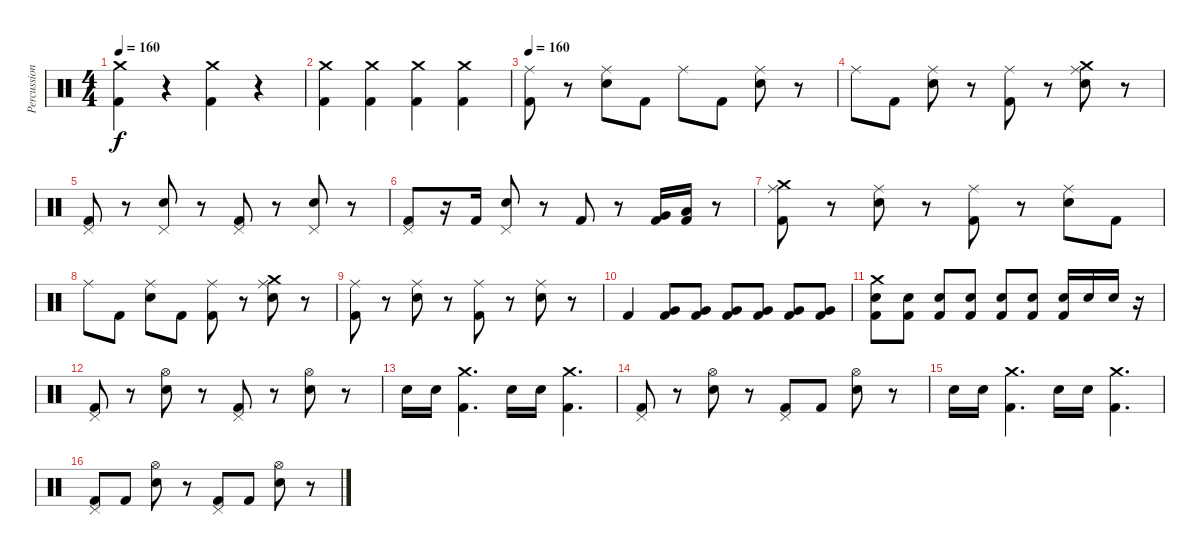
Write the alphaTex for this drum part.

\track ("Percussion" "Percussion") {instrument percussion}
\staff {score}
\articulation defaults
\ts (4 4)
\tempo 160
\clef neutral
\ks c
("Crash medium (hit)" "Kick (hit) 2").4{dy f} r.4 ("Crash medium (hit)" "Kick (hit) 2").4 r.4 |
("Crash medium (hit)" "Kick (hit) 2").4 ("Crash medium (hit)" "Kick (hit) 2").4 ("Crash medium (hit)" "Kick (hit) 2").4 ("Crash medium (hit)" "Kick (hit) 2").4 |
\tempo 160
("Ride (middle)" "Kick (hit) 2").8 r.8 ("Ride (middle)" "Snare (hit) 2").8 "Kick (hit) 2".8 "Ride (middle)".8 "Kick (hit) 2".8 ("Ride (middle)" "Snare (hit) 2").8 r.8 |
"Ride (middle)".8 "Kick (hit) 2".8 ("Ride (middle)" "Snare (hit) 2").8 r.8 ("Ride (middle)" "Kick (hit) 2").8 r.8 ("Ride (middle)" "Crash medium (hit)" "Snare (hit) 2").8 r.8 |
("Pedal Hi-Hat (hit)" "Kick (hit) 2").8 r.8 ("Pedal Hi-Hat (hit)" "Snare (hit) 2").8 r.8 ("Pedal Hi-Hat (hit)" "Kick (hit) 2").8 r.8 ("Pedal Hi-Hat (hit)" "Snare (hit) 2").8 r.8 |
("Pedal Hi-Hat (hit)" "Kick (hit) 2").8 r.16 "Kick (hit) 2".16 ("Pedal Hi-Hat (hit)" "Snare (hit) 2").8 r.8 "Kick (hit) 2".8 r.8 ("Kick (hit) 2" "Very Low Tom (hit)").16 ("Kick (hit) 2" "Low Tom (hit)").16 r.8 |
("Ride (middle)" "Crash medium (hit)" "Kick (hit) 2").8 r.8 ("Ride (middle)" "Snare (hit) 2").8 r.8 ("Ride (middle)" "Kick (hit) 2").8 r.8 ("Ride (middle)" "Snare (hit) 2").8 "Kick (hit) 2".8 |
"Ride (middle)".8 "Kick (hit) 2".8 ("Ride (middle)" "Snare (hit) 2").8 "Kick (hit) 2".8 ("Ride (middle)" "Kick (hit) 2").8 r.8 ("Crash medium (hit)" "Ride (middle)" "Snare (hit) 2").8 r.8 |
("Ride (middle)" "Kick (hit) 2").8 r.8 ("Ride (middle)" "Snare (hit) 2").8 r.8 ("Ride (middle)" "Kick (hit) 2").8 r.8 ("Ride (middle)" "Snare (hit) 2").8 r.8 |
"Kick (hit) 2".4 ("Very Low Tom (hit)" "Kick (hit) 2").8 ("Very Low Tom (hit)" "Kick (hit) 2").8 ("Very Low Tom (hit)" "Kick (hit) 2").8 ("Very Low Tom (hit)" "Kick (hit) 2").8 ("Very Low Tom (hit)" "Kick (hit) 2").8 ("Very Low Tom (hit)" "Kick (hit) 2").8 |
("Crash medium (hit)" "Kick (hit) 2" "Snare (hit) 2").8 ("Kick (hit) 2" "Snare (hit) 2").8 ("Kick (hit) 2" "Snare (hit) 2").8 ("Kick (hit) 2" "Snare (hit) 2").8 ("Kick (hit) 2" "Snare (hit) 2").8 ("Kick (hit) 2" "Snare (hit) 2").8 ("Kick (hit) 2" "Snare (hit) 2").16 "Snare (hit) 2".16 "Snare (hit) 2".16 r.16 |
("Pedal Hi-Hat (hit)" "Kick (hit) 2").8 r.8 ("Hi-Hat (open)" "Snare (hit) 2").8 r.8 ("Pedal Hi-Hat (hit)" "Kick (hit) 2").8 r.8 ("Hi-Hat (open)" "Snare (hit) 2").8 r.8 |
"Snare (hit) 2".16 "Snare (hit) 2".16 ("Crash medium (hit)" "Kick (hit) 2").4{d} "Snare (hit) 2".16 "Snare (hit) 2".16 ("Crash medium (hit)" "Kick (hit) 2").4{d} |
("Pedal Hi-Hat (hit)" "Kick (hit) 2").8 r.8 ("Hi-Hat (open)" "Snare (hit) 2").8 r.8 ("Pedal Hi-Hat (hit)" "Kick (hit) 2").8 "Kick (hit) 2".8 ("Hi-Hat (open)" "Snare (hit) 2").8 r.8 |
"Snare (hit) 2".16 "Snare (hit) 2".16 ("Crash medium (hit)" "Kick (hit) 2").4{d} "Snare (hit) 2".16 "Snare (hit) 2".16 ("Crash medium (hit)" "Kick (hit) 2").4{d} |
("Pedal Hi-Hat (hit)" "Kick (hit) 2").8 "Kick (hit) 2".8 ("Hi-Hat (open)" "Snare (hit) 2").8 r.8 ("Pedal Hi-Hat (hit)" "Kick (hit) 2").8 "Kick (hit) 2".8 ("Hi-Hat (open)" "Snare (hit) 2").8 r.8
